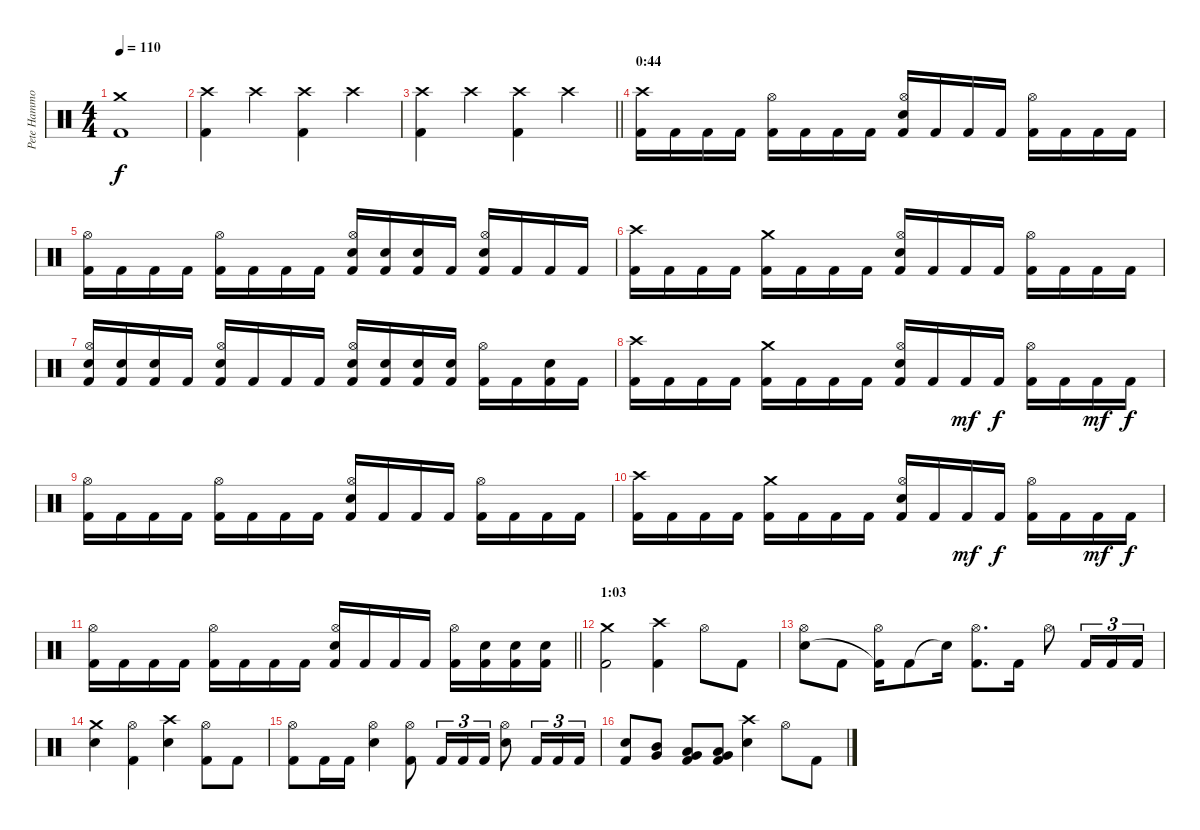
\track ("Pete Hammoura" "Pete Hammo") {instrument percussion}
\staff {score}
\articulation defaults
\ts (4 4)
\tempo 110
\clef neutral
\ks c
("Crash medium (hit)" "Kick (hit) 2").1{dy f} |
("Crash high (hit)" "Kick (hit) 2").4 "Crash high (hit)".4 ("Crash high (hit)" "Kick (hit) 2").4 "Crash high (hit)".4 |
\barLineRight lightlight
("Crash high (hit)" "Kick (hit) 2").4 "Crash high (hit)".4 ("Crash high (hit)" "Kick (hit) 2").4 "Crash high (hit)".4 |
\section ("" "0:44")
("Crash high (hit)" "Kick (hit) 2").16 "Kick (hit) 2".16 "Kick (hit) 2".16 "Kick (hit) 2".16 ("Hi-Hat (open)" "Kick (hit) 2").16 "Kick (hit) 2".16 "Kick (hit) 2".16 "Kick (hit) 2".16 ("Hi-Hat (open)" "Electric Snare (hit)" "Kick (hit) 2").16 "Kick (hit) 2".16 "Kick (hit) 2".16 "Kick (hit) 2".16 ("Hi-Hat (open)" "Kick (hit) 2").16 "Kick (hit) 2".16 "Kick (hit) 2".16 "Kick (hit) 2".16 |
("Hi-Hat (open)" "Kick (hit) 2").16 "Kick (hit) 2".16 "Kick (hit) 2".16 "Kick (hit) 2".16 ("Hi-Hat (open)" "Kick (hit) 2").16 "Kick (hit) 2".16 "Kick (hit) 2".16 "Kick (hit) 2".16 ("Hi-Hat (open)" "Electric Snare (hit)" "Kick (hit) 2").16 ("Electric Snare (hit)" "Kick (hit) 2").16 ("Electric Snare (hit)" "Kick (hit) 2").16 "Kick (hit) 2".16 ("Hi-Hat (open)" "Electric Snare (hit)" "Kick (hit) 2").16 "Kick (hit) 2".16 "Kick (hit) 2".16 "Kick (hit) 2".16 |
("Crash high (hit)" "Kick (hit) 2").16 "Kick (hit) 2".16 "Kick (hit) 2".16 "Kick (hit) 2".16 ("Crash medium (hit)" "Kick (hit) 2").16 "Kick (hit) 2".16 "Kick (hit) 2".16 "Kick (hit) 2".16 ("Hi-Hat (open)" "Electric Snare (hit)" "Kick (hit) 2").16 "Kick (hit) 2".16 "Kick (hit) 2".16 "Kick (hit) 2".16 ("Hi-Hat (open)" "Kick (hit) 2").16 "Kick (hit) 2".16 "Kick (hit) 2".16 "Kick (hit) 2".16 |
("Hi-Hat (open)" "Electric Snare (hit)" "Kick (hit) 2").16 ("Electric Snare (hit)" "Kick (hit) 2").16 ("Electric Snare (hit)" "Kick (hit) 2").16 "Kick (hit) 2".16 ("Hi-Hat (open)" "Electric Snare (hit)" "Kick (hit) 2").16 "Kick (hit) 2".16 "Kick (hit) 2".16 "Kick (hit) 2".16 ("Hi-Hat (open)" "Electric Snare (hit)" "Kick (hit) 2").16 ("Electric Snare (hit)" "Kick (hit) 2").16 ("Electric Snare (hit)" "Kick (hit) 2").16 ("Electric Snare (hit)" "Kick (hit) 2").16 ("Hi-Hat (open)" "Kick (hit) 2").16 "Kick (hit) 2".16 ("Electric Snare (hit)" "Kick (hit) 2").16 "Kick (hit) 2".16 |
("Crash high (hit)" "Kick (hit) 2").16 "Kick (hit) 2".16 "Kick (hit) 2".16 "Kick (hit) 2".16 ("Crash medium (hit)" "Kick (hit) 2").16 "Kick (hit) 2".16 "Kick (hit) 2".16 "Kick (hit) 2".16 ("Hi-Hat (open)" "Electric Snare (hit)" "Kick (hit) 2").16 "Kick (hit) 2".16 "Kick (hit) 2".16{dy mf} "Kick (hit) 2".16{dy f} ("Hi-Hat (open)" "Kick (hit) 2").16 "Kick (hit) 2".16 "Kick (hit) 2".16{dy mf} "Kick (hit) 2".16{dy f} |
("Hi-Hat (open)" "Kick (hit) 2").16 "Kick (hit) 2".16 "Kick (hit) 2".16 "Kick (hit) 2".16 ("Hi-Hat (open)" "Kick (hit) 2").16 "Kick (hit) 2".16 "Kick (hit) 2".16 "Kick (hit) 2".16 ("Hi-Hat (open)" "Electric Snare (hit)" "Kick (hit) 2").16 "Kick (hit) 2".16 "Kick (hit) 2".16 "Kick (hit) 2".16 ("Hi-Hat (open)" "Kick (hit) 2").16 "Kick (hit) 2".16 "Kick (hit) 2".16 "Kick (hit) 2".16 |
("Crash high (hit)" "Kick (hit) 2").16 "Kick (hit) 2".16 "Kick (hit) 2".16 "Kick (hit) 2".16 ("Crash medium (hit)" "Kick (hit) 2").16 "Kick (hit) 2".16 "Kick (hit) 2".16 "Kick (hit) 2".16 ("Hi-Hat (open)" "Electric Snare (hit)" "Kick (hit) 2").16 "Kick (hit) 2".16 "Kick (hit) 2".16{dy mf} "Kick (hit) 2".16{dy f} ("Hi-Hat (open)" "Kick (hit) 2").16 "Kick (hit) 2".16 "Kick (hit) 2".16{dy mf} "Kick (hit) 2".16{dy f} |
\barLineRight lightlight
("Hi-Hat (open)" "Kick (hit) 2").16 "Kick (hit) 2".16 "Kick (hit) 2".16 "Kick (hit) 2".16 ("Hi-Hat (open)" "Kick (hit) 2").16 "Kick (hit) 2".16 "Kick (hit) 2".16 "Kick (hit) 2".16 ("Hi-Hat (open)" "Electric Snare (hit)" "Kick (hit) 2").16 "Kick (hit) 2".16 "Kick (hit) 2".16 "Kick (hit) 2".16 ("Hi-Hat (open)" "Kick (hit) 2").16 ("Electric Snare (hit)" "Kick (hit) 2").16 ("Electric Snare (hit)" "Kick (hit) 2").16 ("Electric Snare (hit)" "Kick (hit) 2").16 |
\section ("" "1:03")
("Crash medium (hit)" "Kick (hit) 2").2 ("Crash high (hit)" "Kick (hit) 2").4 "Hi-Hat (open)".8 "Kick (hit) 2".8 |
("Hi-Hat (open)" "Electric Snare (hit)").8 "Kick (hit) 2".8 ("Hi-Hat (open)" "Kick (hit) 2"{t}).16 "Kick (hit) 2".8 "Snare (hit)"{t}.16 ("Hi-Hat (open)" "Kick (hit) 2").8{d} "Kick (hit) 2".16 "Hi-Hat (open)".8 "Kick (hit) 2".16{tu (3 2)} "Kick (hit) 2".16{tu (3 2)} "Kick (hit) 2".16{tu (3 2)} |
("Crash medium (hit)" "Electric Snare (hit)").4 ("Hi-Hat (open)" "Kick (hit) 2").4 ("Crash high (hit)" "Electric Snare (hit)").4 ("Hi-Hat (open)" "Kick (hit) 2").8 "Kick (hit) 2".8 |
("Hi-Hat (open)" "Kick (hit) 2").8 "Kick (hit) 2".16 "Kick (hit) 2".16 ("Hi-Hat (open)" "Electric Snare (hit)").4 ("Hi-Hat (open)" "Kick (hit) 2").8 "Kick (hit) 2".16{tu (3 2)} "Kick (hit) 2".16{tu (3 2)} "Kick (hit) 2".16{tu (3 2)} ("Hi-Hat (open)" "Electric Snare (hit)").8 "Kick (hit) 2".16{tu (3 2)} "Kick (hit) 2".16{tu (3 2)} "Kick (hit) 2".16{tu (3 2)} |
("Electric Snare (hit)" "Kick (hit) 2").8 ("Mid Tom (hit)" "Very Low Tom (hit)").8 ("Low Tom (hit)" "Very Low Tom (hit)" "Kick (hit) 2").8 ("Very Low Tom (hit)" "Low Floor Tom (hit)" "Kick (hit) 2").8 ("Crash high (hit)" "Electric Snare (hit)").4 "Hi-Hat (open)".8 "Kick (hit) 2".8
